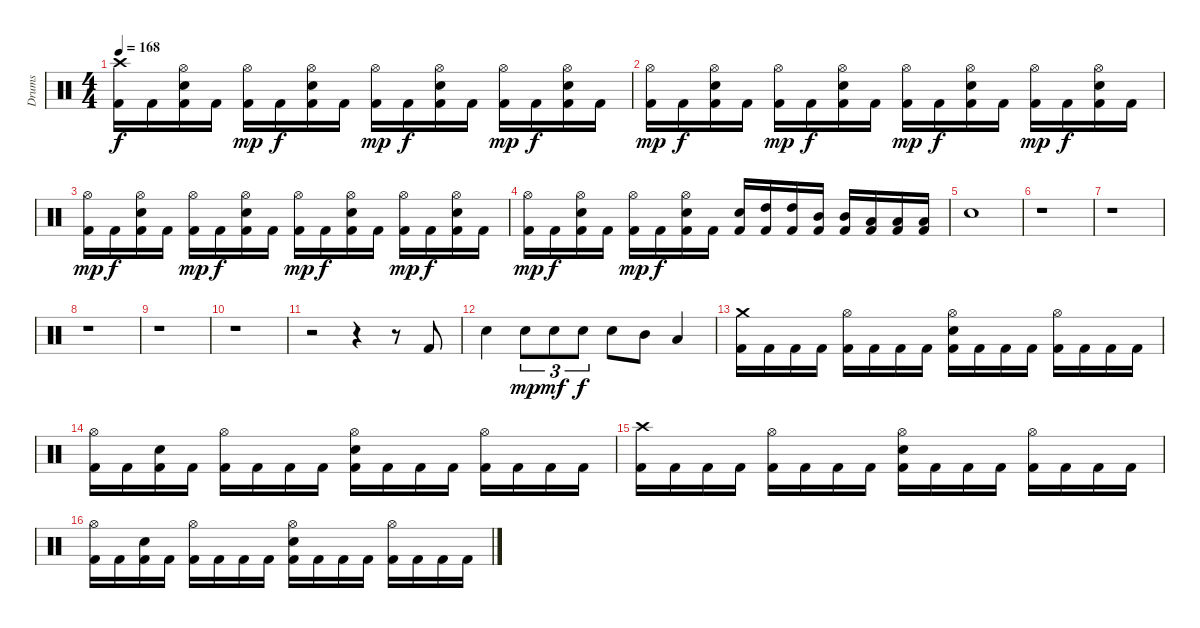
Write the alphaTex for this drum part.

\track ("Drums" "Drums") {instrument percussion}
\staff {score}
\articulation defaults
\ts (4 4)
\tempo 168
\clef neutral
\ks c
("Kick (hit) 2" "Crash high (hit)").16{dy f} "Kick (hit) 2".16 ("Kick (hit) 2" "Electric Snare (hit)" "Hi-Hat (open)").16 "Kick (hit) 2".16 ("Kick (hit) 2" "Hi-Hat (open)").16{dy mp} "Kick (hit) 2".16{dy f} ("Kick (hit) 2" "Electric Snare (hit)" "Hi-Hat (open)").16 "Kick (hit) 2".16 ("Kick (hit) 2" "Hi-Hat (open)").16{dy mp} "Kick (hit) 2".16{dy f} ("Kick (hit) 2" "Electric Snare (hit)" "Hi-Hat (open)").16 "Kick (hit) 2".16 ("Kick (hit) 2" "Hi-Hat (open)").16{dy mp} "Kick (hit) 2".16{dy f} ("Kick (hit) 2" "Electric Snare (hit)" "Hi-Hat (open)").16 "Kick (hit) 2".16 |
("Kick (hit) 2" "Hi-Hat (open)").16{dy mp} "Kick (hit) 2".16{dy f} ("Kick (hit) 2" "Electric Snare (hit)" "Hi-Hat (open)").16 "Kick (hit) 2".16 ("Kick (hit) 2" "Hi-Hat (open)").16{dy mp} "Kick (hit) 2".16{dy f} ("Kick (hit) 2" "Electric Snare (hit)" "Hi-Hat (open)").16 "Kick (hit) 2".16 ("Kick (hit) 2" "Hi-Hat (open)").16{dy mp} "Kick (hit) 2".16{dy f} ("Kick (hit) 2" "Electric Snare (hit)" "Hi-Hat (open)").16 "Kick (hit) 2".16 ("Kick (hit) 2" "Hi-Hat (open)").16{dy mp} "Kick (hit) 2".16{dy f} ("Kick (hit) 2" "Electric Snare (hit)" "Hi-Hat (open)").16 "Kick (hit) 2".16 |
("Kick (hit) 2" "Hi-Hat (open)").16{dy mp} "Kick (hit) 2".16{dy f} ("Kick (hit) 2" "Electric Snare (hit)" "Hi-Hat (open)").16 "Kick (hit) 2".16 ("Kick (hit) 2" "Hi-Hat (open)").16{dy mp} "Kick (hit) 2".16{dy f} ("Kick (hit) 2" "Electric Snare (hit)" "Hi-Hat (open)").16 "Kick (hit) 2".16 ("Kick (hit) 2" "Hi-Hat (open)").16{dy mp} "Kick (hit) 2".16{dy f} ("Kick (hit) 2" "Electric Snare (hit)" "Hi-Hat (open)").16 "Kick (hit) 2".16 ("Kick (hit) 2" "Hi-Hat (open)").16{dy mp} "Kick (hit) 2".16{dy f} ("Kick (hit) 2" "Electric Snare (hit)" "Hi-Hat (open)").16 "Kick (hit) 2".16 |
("Kick (hit) 2" "Hi-Hat (open)").16{dy mp} "Kick (hit) 2".16{dy f} ("Kick (hit) 2" "Electric Snare (hit)" "Hi-Hat (open)").16 "Kick (hit) 2".16 ("Kick (hit) 2" "Hi-Hat (open)").16{dy mp} "Kick (hit) 2".16{dy f} ("Kick (hit) 2" "Electric Snare (hit)" "Hi-Hat (open)").16 "Kick (hit) 2".16 ("Kick (hit) 2" "Electric Snare (hit)").16 ("Kick (hit) 2" "High Tom (hit)").16 ("Kick (hit) 2" "High Tom (hit)").16 ("Kick (hit) 2" "Mid Tom (hit)").16 ("Kick (hit) 2" "Mid Tom (hit)").16 ("Kick (hit) 2" "Low Tom (hit)").16 ("Kick (hit) 2" "Low Tom (hit)").16 ("Kick (hit) 2" "Low Tom (hit)").16 |
\section ("" "")
"Electric Snare (hit)".1 |
r.1 |
r.1 |
r.1 |
r.1 |
r.1 |
r.2 r.4 r.8 "Kick (hit) 2".8 |
"Electric Snare (hit)".4 "Electric Snare (hit)".8{tu (3 2) dy mp} "Electric Snare (hit)".8{tu (3 2) dy mf} "Electric Snare (hit)".8{tu (3 2) dy f} "Electric Snare (hit)".8 "Mid Tom (hit)".8 "Low Tom (hit)".4 |
\section ("" "")
("Kick (hit) 2" "Crash medium (hit)").16 "Kick (hit) 2".16 "Kick (hit) 2".16 "Kick (hit) 2".16 ("Kick (hit) 2" "Hi-Hat (open)").16 "Kick (hit) 2".16 "Kick (hit) 2".16 "Kick (hit) 2".16 ("Kick (hit) 2" "Electric Snare (hit)" "Hi-Hat (open)").16 "Kick (hit) 2".16 "Kick (hit) 2".16 "Kick (hit) 2".16 ("Kick (hit) 2" "Hi-Hat (open)").16 "Kick (hit) 2".16 "Kick (hit) 2".16 "Kick (hit) 2".16 |
("Kick (hit) 2" "Hi-Hat (open)").16 "Kick (hit) 2".16 ("Kick (hit) 2" "Electric Snare (hit)").16 "Kick (hit) 2".16 ("Kick (hit) 2" "Hi-Hat (open)").16 "Kick (hit) 2".16 "Kick (hit) 2".16 "Kick (hit) 2".16 ("Kick (hit) 2" "Electric Snare (hit)" "Hi-Hat (open)").16 "Kick (hit) 2".16 "Kick (hit) 2".16 "Kick (hit) 2".16 ("Kick (hit) 2" "Hi-Hat (open)").16 "Kick (hit) 2".16 "Kick (hit) 2".16 "Kick (hit) 2".16 |
("Kick (hit) 2" "Crash high (hit)").16 "Kick (hit) 2".16 "Kick (hit) 2".16 "Kick (hit) 2".16 ("Kick (hit) 2" "Hi-Hat (open)").16 "Kick (hit) 2".16 "Kick (hit) 2".16 "Kick (hit) 2".16 ("Kick (hit) 2" "Electric Snare (hit)" "Hi-Hat (open)").16 "Kick (hit) 2".16 "Kick (hit) 2".16 "Kick (hit) 2".16 ("Kick (hit) 2" "Hi-Hat (open)").16 "Kick (hit) 2".16 "Kick (hit) 2".16 "Kick (hit) 2".16 |
("Kick (hit) 2" "Hi-Hat (open)").16 "Kick (hit) 2".16 ("Kick (hit) 2" "Electric Snare (hit)").16 "Kick (hit) 2".16 ("Kick (hit) 2" "Hi-Hat (open)").16 "Kick (hit) 2".16 "Kick (hit) 2".16 "Kick (hit) 2".16 ("Kick (hit) 2" "Electric Snare (hit)" "Hi-Hat (open)").16 "Kick (hit) 2".16 "Kick (hit) 2".16 "Kick (hit) 2".16 ("Kick (hit) 2" "Hi-Hat (open)").16 "Kick (hit) 2".16 "Kick (hit) 2".16 "Kick (hit) 2".16
